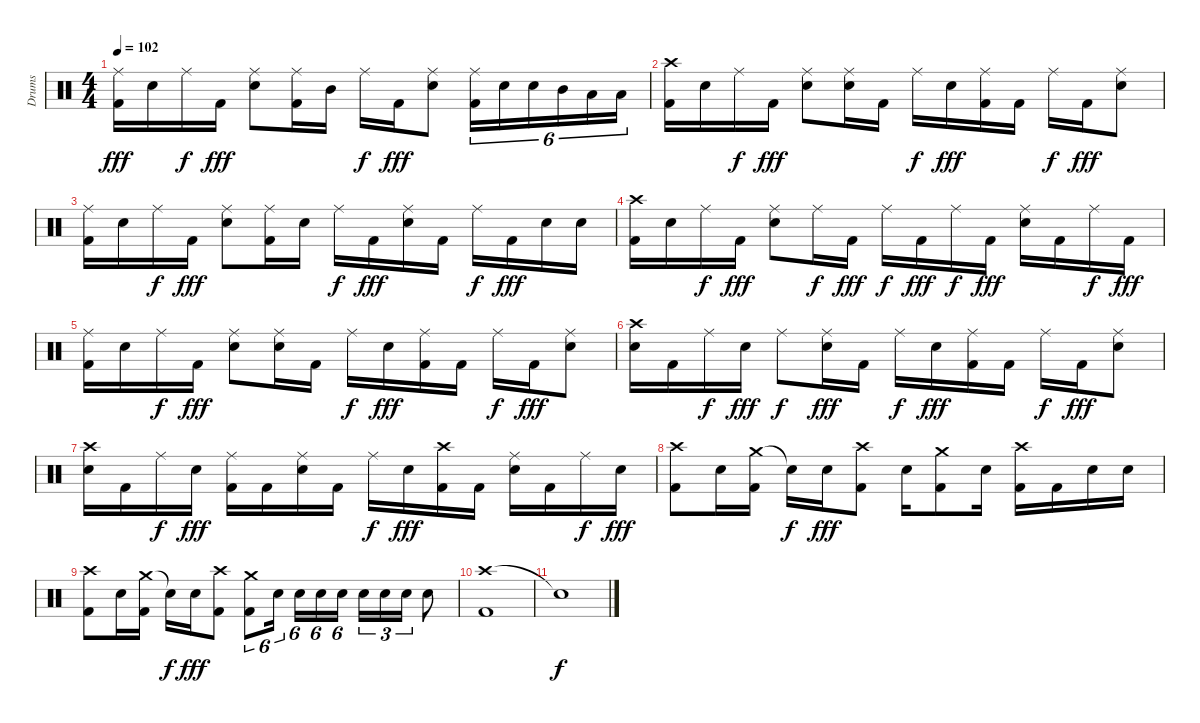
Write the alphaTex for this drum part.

\track ("Drums" "Drums") {instrument percussion}
\staff {score}
\articulation defaults
\ts (4 4)
\tempo 102
\clef neutral
\ks c
("Ride (middle)" "Kick (hit) 2").16{dy fff} "Electric Snare (hit)".16 "Ride (middle)".16{dy f} "Kick (hit) 2".16{dy fff} ("Ride (middle)" "Electric Snare (hit)").8 ("Ride (middle)" "Kick (hit) 2").16 "Mid Tom (hit)".16 "Ride (middle)".16{dy f} "Kick (hit) 2".16{dy fff} ("Ride (middle)" "Electric Snare (hit)").8 ("Ride (middle)" "Kick (hit) 2").16{tu (6 4)} "Electric Snare (hit)".16{tu (6 4)} "Electric Snare (hit)".16{tu (6 4)} "Mid Tom (hit)".16{tu (6 4)} "Low Tom (hit)".16{tu (6 4)} "Low Tom (hit)".16{tu (6 4)} |
("Crash high (hit)" "Kick (hit) 2").16 "Electric Snare (hit)".16 "Ride (middle)".16{dy f} "Kick (hit) 2".16{dy fff} ("Ride (middle)" "Electric Snare (hit)").8 ("Ride (middle)" "Electric Snare (hit)").16 "Kick (hit) 2".16 "Ride (middle)".16{dy f} "Electric Snare (hit)".16{dy fff} ("Ride (middle)" "Kick (hit) 2").16 "Kick (hit) 2".16 "Ride (middle)".16{dy f} "Kick (hit) 2".16{dy fff} ("Ride (middle)" "Electric Snare (hit)").8 |
("Ride (middle)" "Kick (hit) 2").16 "Electric Snare (hit)".16 "Ride (middle)".16{dy f} "Kick (hit) 2".16{dy fff} ("Ride (middle)" "Electric Snare (hit)").8 ("Ride (middle)" "Kick (hit) 2").16 "Electric Snare (hit)".16 "Ride (middle)".16{dy f} "Kick (hit) 2".16{dy fff} ("Ride (middle)" "Electric Snare (hit)").16 "Kick (hit) 2".16 "Ride (middle)".16{dy f} "Kick (hit) 2".16{dy fff} "Electric Snare (hit)".16 "Electric Snare (hit)".16 |
("Crash high (hit)" "Kick (hit) 2").16 "Electric Snare (hit)".16 "Ride (middle)".16{dy f} "Kick (hit) 2".16{dy fff} ("Ride (middle)" "Electric Snare (hit)").8 "Ride (middle)".16{dy f} "Kick (hit) 2".16{dy fff} "Ride (middle)".16{dy f} "Kick (hit) 2".16{dy fff} "Ride (middle)".16{dy f} "Kick (hit) 2".16{dy fff} ("Ride (middle)" "Electric Snare (hit)").16 "Kick (hit) 2".16 "Ride (middle)".16{dy f} "Kick (hit) 2".16{dy fff} |
("Ride (middle)" "Kick (hit) 2").16 "Electric Snare (hit)".16 "Ride (middle)".16{dy f} "Kick (hit) 2".16{dy fff} ("Ride (middle)" "Electric Snare (hit)").8 ("Ride (middle)" "Electric Snare (hit)").16 "Kick (hit) 2".16 "Ride (middle)".16{dy f} "Electric Snare (hit)".16{dy fff} ("Ride (middle)" "Kick (hit) 2").16 "Kick (hit) 2".16 "Ride (middle)".16{dy f} "Kick (hit) 2".16{dy fff} ("Ride (middle)" "Electric Snare (hit)").8 |
("Crash high (hit)" "Electric Snare (hit)").16 "Kick (hit) 2".16 "Ride (middle)".16{dy f} "Electric Snare (hit)".16{dy fff} "Ride (middle)".8{dy f} ("Ride (middle)" "Electric Snare (hit)").16{dy fff} "Kick (hit) 2".16 "Ride (middle)".16{dy f} "Electric Snare (hit)".16{dy fff} ("Ride (middle)" "Kick (hit) 2").16 "Kick (hit) 2".16 "Ride (middle)".16{dy f} "Kick (hit) 2".16{dy fff} ("Ride (middle)" "Electric Snare (hit)").8 |
("Crash high (hit)" "Electric Snare (hit)").16 "Kick (hit) 2".16 "Ride (middle)".16{dy f} "Electric Snare (hit)".16{dy fff} ("Ride (middle)" "Kick (hit) 2").16 "Kick (hit) 2".16 ("Ride (middle)" "Electric Snare (hit)").16 "Kick (hit) 2".16 "Ride (middle)".16{dy f} "Electric Snare (hit)".16{dy fff} ("Crash high (hit)" "Kick (hit) 2").16 "Kick (hit) 2".16 ("Ride (middle)" "Electric Snare (hit)").16 "Kick (hit) 2".16 "Ride (middle)".16{dy f} "Electric Snare (hit)".16{dy fff} |
("Crash high (hit)" "Kick (hit) 2").8 "Electric Snare (hit)".16 ("Crash medium (hit)" "Kick (hit) 2").16 "Snare (hit)"{t}.16{dy f} "Electric Snare (hit)".16{dy fff} ("Crash high (hit)" "Kick (hit) 2").8 "Electric Snare (hit)".16 ("Crash medium (hit)" "Kick (hit) 2").8 "Electric Snare (hit)".16 ("Crash high (hit)" "Kick (hit) 2").16 "Kick (hit) 2".16 "Electric Snare (hit)".16 "Electric Snare (hit)".16 |
("Crash high (hit)" "Kick (hit) 2").8 "Electric Snare (hit)".16 ("Crash medium (hit)" "Kick (hit) 2").16 "Snare (hit)"{t}.16{dy f} "Electric Snare (hit)".16{dy fff} ("Crash high (hit)" "Kick (hit) 2").8 ("Crash medium (hit)" "Kick (hit) 2").8{tu (6 4)} "Electric Snare (hit)".16{tu (6 4)} "Electric Snare (hit)".16{tu (6 4)} "Electric Snare (hit)".16{tu (6 4)} "Electric Snare (hit)".16{tu (6 4)} "Electric Snare (hit)".16{tu (3 2)} "Electric Snare (hit)".16{tu (3 2)} "Electric Snare (hit)".16{tu (3 2)} "Electric Snare (hit)".8 |
("Crash high (hit)" "Kick (hit) 2").1 |
"Snare (hit)"{t}.1{dy f}
